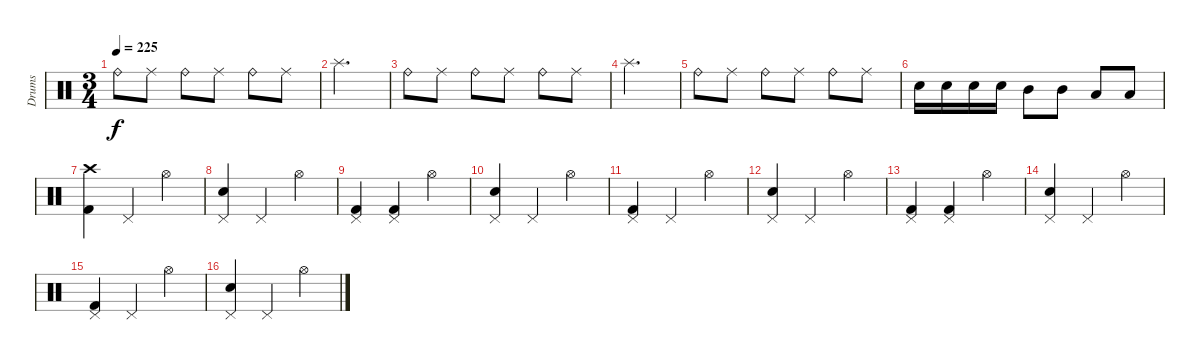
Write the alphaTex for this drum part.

\track ("Drums" "Drums") {instrument percussion}
\staff {score}
\articulation defaults
\ts (3 4)
\tempo 225
\clef neutral
\ks c "Ride (bell)".8{dy f} "Ride (middle)".8 "Ride (bell)".8 "Ride (middle)".8 "Ride (bell)".8 "Ride (middle)".8
|
"Splash (hit)".2{d} |
"Ride (bell)".8 "Ride (middle)".8 "Ride (bell)".8 "Ride (middle)".8 "Ride (bell)".8 "Ride (middle)".8 |
"Splash (hit)".2{d} |
"Ride (bell)".8 "Ride (middle)".8 "Ride (bell)".8 "Ride (middle)".8 "Ride (bell)".8 "Ride (middle)".8 |
"Electric Snare (hit)".16 "Electric Snare (hit)".16 "Electric Snare (hit)".16 "Electric Snare (hit)".16 "Mid Tom (hit)".8 "Mid Tom (hit)".8 "Low Tom (hit)".8 "Low Tom (hit)".8 |
("Crash high (hit)" "Kick (hit) 2").4{volume 10} "Pedal Hi-Hat (hit)".4 "Hi-Hat (open)".4 |
("Pedal Hi-Hat (hit)" "Electric Snare (hit)").4 "Pedal Hi-Hat (hit)".4 "Hi-Hat (open)".4 |
("Pedal Hi-Hat (hit)" "Kick (hit) 2").4 ("Pedal Hi-Hat (hit)" "Kick (hit) 2").4 "Hi-Hat (open)".4 |
("Pedal Hi-Hat (hit)" "Electric Snare (hit)").4 "Pedal Hi-Hat (hit)".4 "Hi-Hat (open)".4 |
("Pedal Hi-Hat (hit)" "Kick (hit) 2").4 "Pedal Hi-Hat (hit)".4 "Hi-Hat (open)".4 |
("Pedal Hi-Hat (hit)" "Electric Snare (hit)").4 "Pedal Hi-Hat (hit)".4 "Hi-Hat (open)".4 |
("Pedal Hi-Hat (hit)" "Kick (hit) 2").4 ("Pedal Hi-Hat (hit)" "Kick (hit) 2").4 "Hi-Hat (open)".4 |
("Pedal Hi-Hat (hit)" "Electric Snare (hit)").4 "Pedal Hi-Hat (hit)".4 "Hi-Hat (open)".4 |
("Pedal Hi-Hat (hit)" "Kick (hit) 2").4 "Pedal Hi-Hat (hit)".4 "Hi-Hat (open)".4 |
("Pedal Hi-Hat (hit)" "Electric Snare (hit)").4 "Pedal Hi-Hat (hit)".4 "Hi-Hat (open)".4
